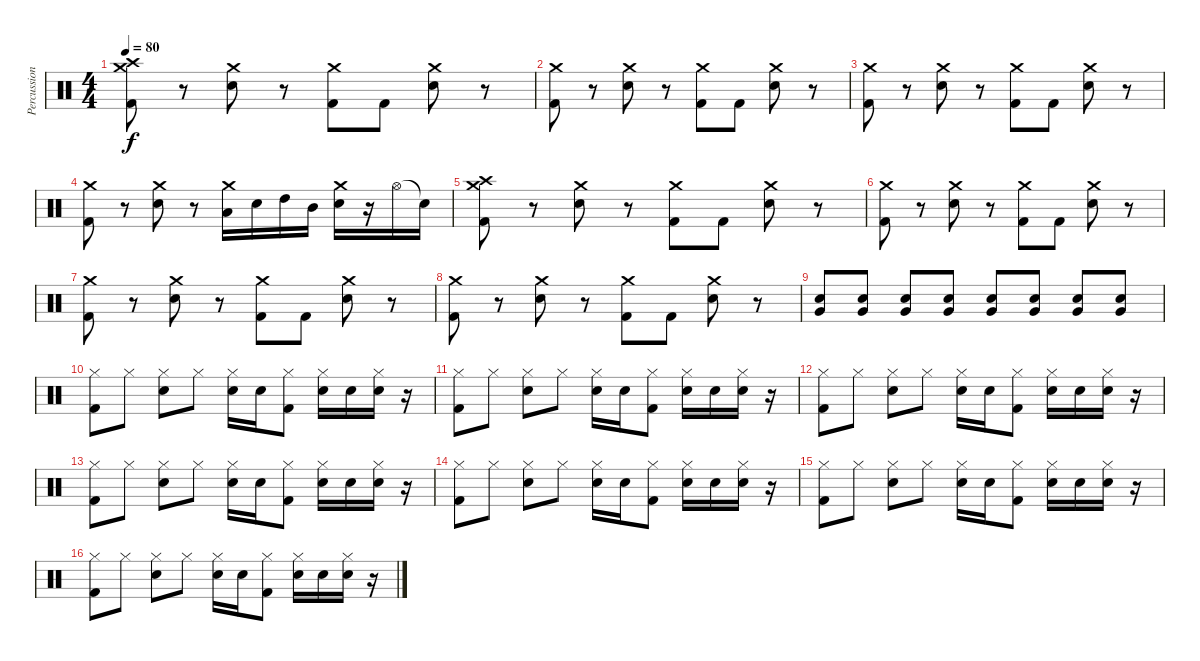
\track ("Percussion" "Percussion") {instrument percussion}
\staff {score}
\articulation defaults
\ts (4 4)
\tempo 80
\clef neutral
\ks c
("Kick (hit) 2" "Crash medium (hit)" "Crash high (hit)").8{dy f} r.8 ("Electric Snare (hit)" "Crash medium (hit)").8 r.8 ("Kick (hit) 2" "Crash medium (hit)").8 "Kick (hit) 2".8 ("Electric Snare (hit)" "Crash medium (hit)").8 r.8 |
("Kick (hit) 2" "Crash medium (hit)").8 r.8 ("Electric Snare (hit)" "Crash medium (hit)").8 r.8 ("Kick (hit) 2" "Crash medium (hit)").8 "Kick (hit) 2".8 ("Electric Snare (hit)" "Crash medium (hit)").8 r.8 |
("Kick (hit) 2" "Crash medium (hit)").8 r.8 ("Electric Snare (hit)" "Crash medium (hit)").8 r.8 ("Kick (hit) 2" "Crash medium (hit)").8 "Kick (hit) 2".8 ("Electric Snare (hit)" "Crash medium (hit)").8 r.8 |
("Kick (hit) 2" "Crash medium (hit)").8 r.8 ("Electric Snare (hit)" "Crash medium (hit)").8 r.8 ("Low Tom (hit)" "Crash medium (hit)").16 "Electric Snare (hit)".16 "High Tom (hit)".16 "Mid Tom (hit)".16 ("Electric Snare (hit)" "Crash medium (hit)").16 r.16 "Hi-Hat (open)".16 "Electric Snare (hit)"{t}.16 |
("Kick (hit) 2" "Crash medium (hit)" "Crash high (hit)").8 r.8 ("Electric Snare (hit)" "Crash medium (hit)").8 r.8 ("Kick (hit) 2" "Crash medium (hit)").8 "Kick (hit) 2".8 ("Electric Snare (hit)" "Crash medium (hit)").8 r.8 |
("Kick (hit) 2" "Crash medium (hit)").8 r.8 ("Electric Snare (hit)" "Crash medium (hit)").8 r.8 ("Kick (hit) 2" "Crash medium (hit)").8 "Kick (hit) 2".8 ("Electric Snare (hit)" "Crash medium (hit)").8 r.8 |
("Kick (hit) 2" "Crash medium (hit)").8 r.8 ("Electric Snare (hit)" "Crash medium (hit)").8 r.8 ("Kick (hit) 2" "Crash medium (hit)").8 "Kick (hit) 2".8 ("Electric Snare (hit)" "Crash medium (hit)").8 r.8 |
("Kick (hit) 2" "Crash medium (hit)").8 r.8 ("Electric Snare (hit)" "Crash medium (hit)").8 r.8 ("Kick (hit) 2" "Crash medium (hit)").8 "Kick (hit) 2".8 ("Electric Snare (hit)" "Crash medium (hit)").8 r.8 |
("Electric Snare (hit)" "Very Low Tom (hit)").8 ("Electric Snare (hit)" "Very Low Tom (hit)").8 ("Electric Snare (hit)" "Very Low Tom (hit)").8 ("Electric Snare (hit)" "Very Low Tom (hit)").8 ("Electric Snare (hit)" "Very Low Tom (hit)").8 ("Electric Snare (hit)" "Very Low Tom (hit)").8 ("Electric Snare (hit)" "Very Low Tom (hit)").8 ("Electric Snare (hit)" "Very Low Tom (hit)").8 |
("Kick (hit) 2" "Hi-Hat (closed)").8 "Hi-Hat (closed)".8 ("Electric Snare (hit)" "Hi-Hat (closed)").8 "Hi-Hat (closed)".8 ("Electric Snare (hit)" "Hi-Hat (closed)").16 "Electric Snare (hit)".16 ("Kick (hit) 2" "Hi-Hat (closed)").8 ("Electric Snare (hit)" "Hi-Hat (closed)").16 "Electric Snare (hit)".16 ("Electric Snare (hit)" "Hi-Hat (closed)").16 r.16 |
("Kick (hit) 2" "Hi-Hat (closed)").8 "Hi-Hat (closed)".8 ("Electric Snare (hit)" "Hi-Hat (closed)").8 "Hi-Hat (closed)".8 ("Electric Snare (hit)" "Hi-Hat (closed)").16 "Electric Snare (hit)".16 ("Kick (hit) 2" "Hi-Hat (closed)").8 ("Electric Snare (hit)" "Hi-Hat (closed)").16 "Electric Snare (hit)".16 ("Electric Snare (hit)" "Hi-Hat (closed)").16 r.16 |
("Kick (hit) 2" "Hi-Hat (closed)").8 "Hi-Hat (closed)".8 ("Electric Snare (hit)" "Hi-Hat (closed)").8 "Hi-Hat (closed)".8 ("Electric Snare (hit)" "Hi-Hat (closed)").16 "Electric Snare (hit)".16 ("Kick (hit) 2" "Hi-Hat (closed)").8 ("Electric Snare (hit)" "Hi-Hat (closed)").16 "Electric Snare (hit)".16 ("Electric Snare (hit)" "Hi-Hat (closed)").16 r.16 |
("Kick (hit) 2" "Hi-Hat (closed)").8 "Hi-Hat (closed)".8 ("Electric Snare (hit)" "Hi-Hat (closed)").8 "Hi-Hat (closed)".8 ("Electric Snare (hit)" "Hi-Hat (closed)").16 "Electric Snare (hit)".16 ("Kick (hit) 2" "Hi-Hat (closed)").8 ("Electric Snare (hit)" "Hi-Hat (closed)").16 "Electric Snare (hit)".16 ("Electric Snare (hit)" "Hi-Hat (closed)").16 r.16 |
("Kick (hit) 2" "Hi-Hat (closed)").8 "Hi-Hat (closed)".8 ("Electric Snare (hit)" "Hi-Hat (closed)").8 "Hi-Hat (closed)".8 ("Electric Snare (hit)" "Hi-Hat (closed)").16 "Electric Snare (hit)".16 ("Kick (hit) 2" "Hi-Hat (closed)").8 ("Electric Snare (hit)" "Hi-Hat (closed)").16 "Electric Snare (hit)".16 ("Electric Snare (hit)" "Hi-Hat (closed)").16 r.16 |
("Kick (hit) 2" "Hi-Hat (closed)").8 "Hi-Hat (closed)".8 ("Electric Snare (hit)" "Hi-Hat (closed)").8 "Hi-Hat (closed)".8 ("Electric Snare (hit)" "Hi-Hat (closed)").16 "Electric Snare (hit)".16 ("Kick (hit) 2" "Hi-Hat (closed)").8 ("Electric Snare (hit)" "Hi-Hat (closed)").16 "Electric Snare (hit)".16 ("Electric Snare (hit)" "Hi-Hat (closed)").16 r.16 |
("Kick (hit) 2" "Hi-Hat (closed)").8 "Hi-Hat (closed)".8 ("Electric Snare (hit)" "Hi-Hat (closed)").8 "Hi-Hat (closed)".8 ("Electric Snare (hit)" "Hi-Hat (closed)").16 "Electric Snare (hit)".16 ("Kick (hit) 2" "Hi-Hat (closed)").8 ("Electric Snare (hit)" "Hi-Hat (closed)").16 "Electric Snare (hit)".16 ("Electric Snare (hit)" "Hi-Hat (closed)").16 r.16
